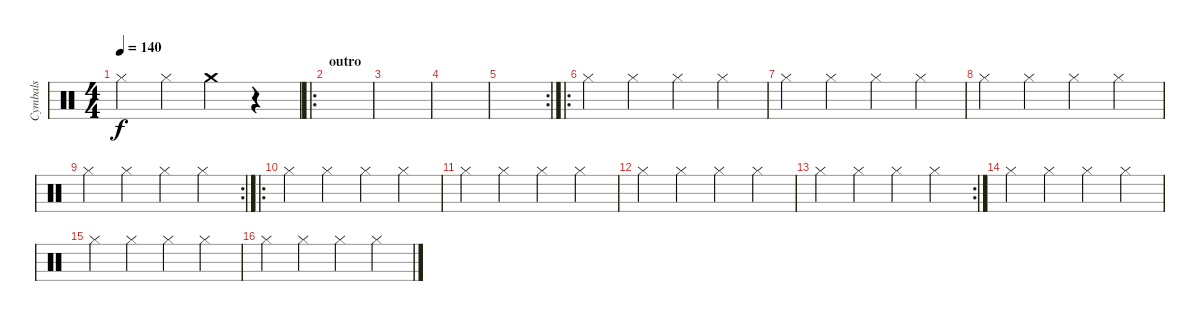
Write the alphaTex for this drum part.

\track ("Cymbals" "Cymbals") {instrument percussion}
\staff {score}
\articulation defaults
\ts (4 4)
\tempo 140
\clef neutral
\ks c "Hi-Hat (closed)".4{dy f} "Hi-Hat (closed)".4 "Crash medium (hit)".4
r.4 |
\ro
\section ("" "outro")
|
|
|
\rc 2
|
\ro "Hi-Hat (closed)".4 "Hi-Hat (closed)".4 "Hi-Hat (closed)".4 "Hi-Hat (closed)".4
|
"Hi-Hat (closed)".4 "Hi-Hat (closed)".4 "Hi-Hat (closed)".4 "Hi-Hat (closed)".4 |
"Hi-Hat (closed)".4 "Hi-Hat (closed)".4 "Hi-Hat (closed)".4 "Hi-Hat (closed)".4 |
\rc 2 "Hi-Hat (closed)".4 "Hi-Hat (closed)".4 "Hi-Hat (closed)".4 "Hi-Hat (closed)".4
|
\ro "Hi-Hat (closed)".4 "Hi-Hat (closed)".4 "Hi-Hat (closed)".4 "Hi-Hat (closed)".4
|
"Hi-Hat (closed)".4 "Hi-Hat (closed)".4 "Hi-Hat (closed)".4 "Hi-Hat (closed)".4 |
"Hi-Hat (closed)".4 "Hi-Hat (closed)".4 "Hi-Hat (closed)".4 "Hi-Hat (closed)".4 |
\rc 2 "Hi-Hat (closed)".4 "Hi-Hat (closed)".4 "Hi-Hat (closed)".4 "Hi-Hat (closed)".4
|
"Hi-Hat (closed)".4 "Hi-Hat (closed)".4 "Hi-Hat (closed)".4 "Hi-Hat (closed)".4 |
"Hi-Hat (closed)".4 "Hi-Hat (closed)".4 "Hi-Hat (closed)".4 "Hi-Hat (closed)".4 |
"Hi-Hat (closed)".4 "Hi-Hat (closed)".4 "Hi-Hat (closed)".4 "Hi-Hat (closed)".4
